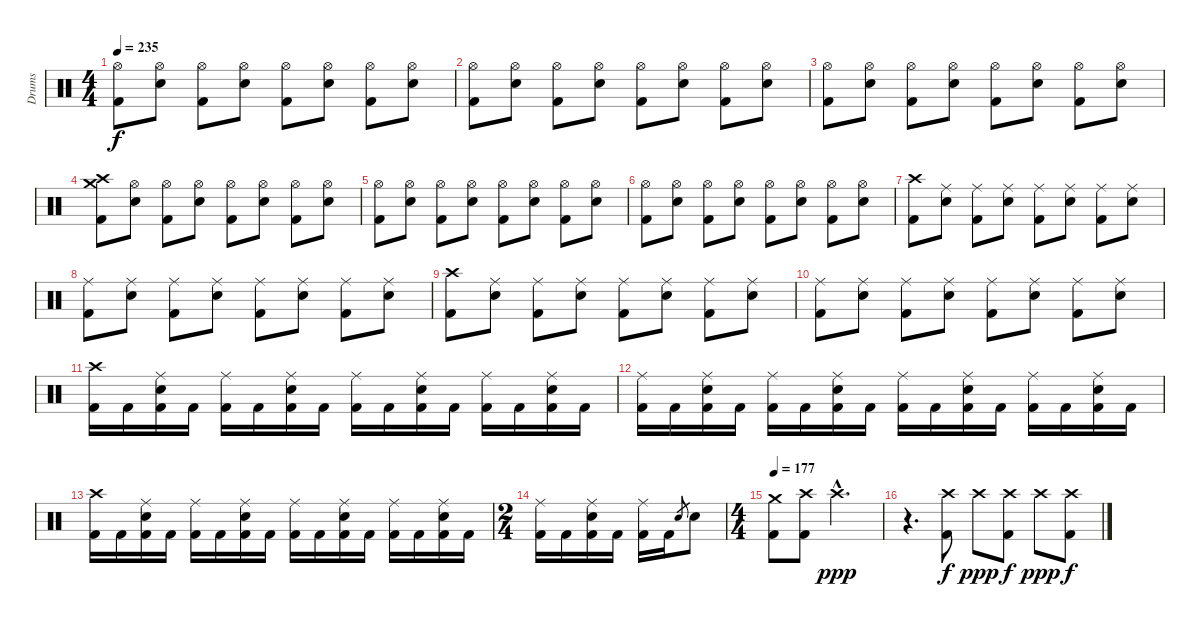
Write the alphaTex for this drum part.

\track ("Drums" "Drums") {instrument percussion}
\staff {score}
\articulation defaults
\ts (4 4)
\tempo 235
\clef neutral
\ks c
("Kick (hit) 2" "Hi-Hat (open)").8{dy f} ("Hi-Hat (open)" "Electric Snare (hit)").8 ("Hi-Hat (open)" "Kick (hit) 2").8 ("Hi-Hat (open)" "Electric Snare (hit)").8 ("Hi-Hat (open)" "Kick (hit) 2").8 ("Hi-Hat (open)" "Electric Snare (hit)").8 ("Hi-Hat (open)" "Kick (hit) 2").8 ("Hi-Hat (open)" "Electric Snare (hit)").8 |
("Kick (hit) 2" "Hi-Hat (open)").8 ("Hi-Hat (open)" "Electric Snare (hit)").8 ("Hi-Hat (open)" "Kick (hit) 2").8 ("Hi-Hat (open)" "Electric Snare (hit)").8 ("Hi-Hat (open)" "Kick (hit) 2").8 ("Hi-Hat (open)" "Electric Snare (hit)").8 ("Hi-Hat (open)" "Kick (hit) 2").8 ("Hi-Hat (open)" "Electric Snare (hit)").8 |
("Kick (hit) 2" "Hi-Hat (open)").8 ("Hi-Hat (open)" "Electric Snare (hit)").8 ("Hi-Hat (open)" "Kick (hit) 2").8 ("Hi-Hat (open)" "Electric Snare (hit)").8 ("Hi-Hat (open)" "Kick (hit) 2").8 ("Hi-Hat (open)" "Electric Snare (hit)").8 ("Hi-Hat (open)" "Kick (hit) 2").8 ("Hi-Hat (open)" "Electric Snare (hit)").8 |
("Kick (hit) 2" "Crash medium (hit)" "Crash high (hit)").8 ("Hi-Hat (open)" "Electric Snare (hit)").8 ("Hi-Hat (open)" "Kick (hit) 2").8 ("Hi-Hat (open)" "Electric Snare (hit)").8 ("Hi-Hat (open)" "Kick (hit) 2").8 ("Hi-Hat (open)" "Electric Snare (hit)").8 ("Hi-Hat (open)" "Kick (hit) 2").8 ("Hi-Hat (open)" "Electric Snare (hit)").8 |
("Kick (hit) 2" "Hi-Hat (open)").8 ("Hi-Hat (open)" "Electric Snare (hit)").8 ("Hi-Hat (open)" "Kick (hit) 2").8 ("Hi-Hat (open)" "Electric Snare (hit)").8 ("Hi-Hat (open)" "Kick (hit) 2").8 ("Hi-Hat (open)" "Electric Snare (hit)").8 ("Hi-Hat (open)" "Kick (hit) 2").8 ("Hi-Hat (open)" "Electric Snare (hit)").8 |
("Kick (hit) 2" "Hi-Hat (open)").8 ("Hi-Hat (open)" "Electric Snare (hit)").8 ("Hi-Hat (open)" "Kick (hit) 2").8 ("Hi-Hat (open)" "Electric Snare (hit)").8 ("Hi-Hat (open)" "Kick (hit) 2").8 ("Hi-Hat (open)" "Electric Snare (hit)").8 ("Hi-Hat (open)" "Kick (hit) 2").8 ("Hi-Hat (open)" "Electric Snare (hit)").8 |
("Crash high (hit)" "Kick (hit) 2").8 ("Electric Snare (hit)" "Ride (middle)").8 ("Kick (hit) 2" "Ride (middle)").8 ("Electric Snare (hit)" "Ride (middle)").8 ("Kick (hit) 2" "Ride (middle)").8 ("Electric Snare (hit)" "Ride (middle)").8 ("Kick (hit) 2" "Ride (middle)").8 ("Electric Snare (hit)" "Ride (middle)").8 |
("Ride (middle)" "Kick (hit) 2").8 ("Electric Snare (hit)" "Ride (middle)").8 ("Kick (hit) 2" "Ride (middle)").8 ("Electric Snare (hit)" "Ride (middle)").8 ("Kick (hit) 2" "Ride (middle)").8 ("Electric Snare (hit)" "Ride (middle)").8 ("Kick (hit) 2" "Ride (middle)").8 ("Electric Snare (hit)" "Ride (middle)").8 |
("Crash high (hit)" "Kick (hit) 2").8 ("Electric Snare (hit)" "Ride (middle)").8 ("Kick (hit) 2" "Ride (middle)").8 ("Electric Snare (hit)" "Ride (middle)").8 ("Kick (hit) 2" "Ride (middle)").8 ("Electric Snare (hit)" "Ride (middle)").8 ("Kick (hit) 2" "Ride (middle)").8 ("Electric Snare (hit)" "Ride (middle)").8 |
("Ride (middle)" "Kick (hit) 2").8 ("Electric Snare (hit)" "Ride (middle)").8 ("Kick (hit) 2" "Ride (middle)").8 ("Electric Snare (hit)" "Ride (middle)").8 ("Kick (hit) 2" "Ride (middle)").8 ("Electric Snare (hit)" "Ride (middle)").8 ("Kick (hit) 2" "Ride (middle)").8 ("Electric Snare (hit)" "Ride (middle)").8 |
("Kick (hit) 2" "Crash high (hit)").16 "Kick (hit) 2".16 ("Kick (hit) 2" "Electric Snare (hit)" "Ride (middle)").16 "Kick (hit) 2".16 ("Kick (hit) 2" "Ride (middle)").16 "Kick (hit) 2".16 ("Kick (hit) 2" "Electric Snare (hit)" "Ride (middle)").16 "Kick (hit) 2".16 ("Kick (hit) 2" "Ride (middle)").16 "Kick (hit) 2".16 ("Kick (hit) 2" "Electric Snare (hit)" "Ride (middle)").16 "Kick (hit) 2".16 ("Kick (hit) 2" "Ride (middle)").16 "Kick (hit) 2".16 ("Kick (hit) 2" "Electric Snare (hit)" "Ride (middle)").16 "Kick (hit) 2".16 |
("Kick (hit) 2" "Ride (middle)").16 "Kick (hit) 2".16 ("Kick (hit) 2" "Electric Snare (hit)" "Ride (middle)").16 "Kick (hit) 2".16 ("Kick (hit) 2" "Ride (middle)").16 "Kick (hit) 2".16 ("Kick (hit) 2" "Electric Snare (hit)" "Ride (middle)").16 "Kick (hit) 2".16 ("Kick (hit) 2" "Ride (middle)").16 "Kick (hit) 2".16 ("Kick (hit) 2" "Electric Snare (hit)" "Ride (middle)").16 "Kick (hit) 2".16 ("Kick (hit) 2" "Ride (middle)").16 "Kick (hit) 2".16 ("Kick (hit) 2" "Electric Snare (hit)" "Ride (middle)").16 "Kick (hit) 2".16 |
("Kick (hit) 2" "Crash high (hit)").16 "Kick (hit) 2".16 ("Kick (hit) 2" "Electric Snare (hit)" "Ride (middle)").16 "Kick (hit) 2".16 ("Kick (hit) 2" "Ride (middle)").16 "Kick (hit) 2".16 ("Kick (hit) 2" "Electric Snare (hit)" "Ride (middle)").16 "Kick (hit) 2".16 ("Kick (hit) 2" "Ride (middle)").16 "Kick (hit) 2".16 ("Kick (hit) 2" "Electric Snare (hit)" "Ride (middle)").16 "Kick (hit) 2".16 ("Kick (hit) 2" "Ride (middle)").16 "Kick (hit) 2".16 ("Kick (hit) 2" "Electric Snare (hit)" "Ride (middle)").16 "Kick (hit) 2".16 |
\ts (2 4)
("Kick (hit) 2" "Ride (middle)").16 "Kick (hit) 2".16 ("Kick (hit) 2" "Electric Snare (hit)" "Ride (middle)").16 "Kick (hit) 2".16 ("Kick (hit) 2" "Ride (middle)").16 "Kick (hit) 2".16 "Electric Snare (hit)".8{gr} "Electric Snare (hit)".8 |
\ts (4 4)
\tempo 177
("Crash medium (hit)" "Kick (hit) 2").8 ("Crash high (hit)" "Kick (hit) 2").8 "Crash high (hit)"{hac}.2{d dy ppp} |
r.4{d} ("Crash high (hit)" "Kick (hit) 2").8{dy f} "Crash high (hit)".8{dy ppp} ("Crash high (hit)" "Kick (hit) 2").8{dy f} "Crash high (hit)".8{dy ppp} ("Crash high (hit)" "Kick (hit) 2").8{dy f}
